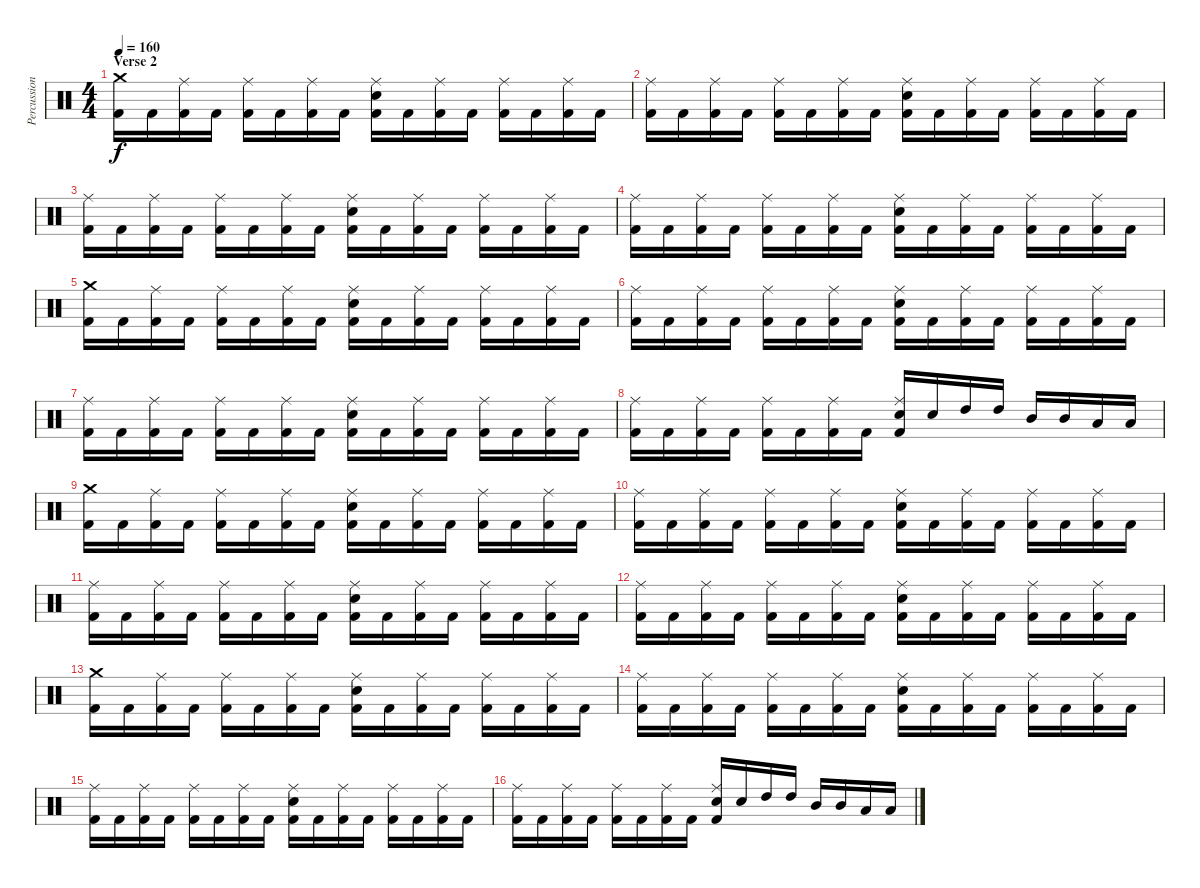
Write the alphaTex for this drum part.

\track ("Percussions" "Percussion") {instrument percussion}
\staff {score}
\articulation defaults
\ts (4 4)
\section ("" "Verse 2")
\tempo 160
\clef neutral
\ks c
("Crash medium (hit)" "Kick (hit) 2").16{dy f} "Kick (hit) 2".16 ("Ride (middle)" "Kick (hit) 2").16 "Kick (hit) 2".16 ("Ride (middle)" "Kick (hit) 2").16 "Kick (hit) 2".16 ("Ride (middle)" "Kick (hit) 2").16 "Kick (hit) 2".16 ("Ride (middle)" "Electric Snare (hit)" "Kick (hit) 2").16 "Kick (hit) 2".16 ("Ride (middle)" "Kick (hit) 2").16 "Kick (hit) 2".16 ("Ride (middle)" "Kick (hit) 2").16 "Kick (hit) 2".16 ("Ride (middle)" "Kick (hit) 2").16 "Kick (hit) 2".16 |
("Ride (middle)" "Kick (hit) 2").16 "Kick (hit) 2".16 ("Ride (middle)" "Kick (hit) 2").16 "Kick (hit) 2".16 ("Ride (middle)" "Kick (hit) 2").16 "Kick (hit) 2".16 ("Ride (middle)" "Kick (hit) 2").16 "Kick (hit) 2".16 ("Ride (middle)" "Electric Snare (hit)" "Kick (hit) 2").16 "Kick (hit) 2".16 ("Ride (middle)" "Kick (hit) 2").16 "Kick (hit) 2".16 ("Ride (middle)" "Kick (hit) 2").16 "Kick (hit) 2".16 ("Ride (middle)" "Kick (hit) 2").16 "Kick (hit) 2".16 |
("Ride (middle)" "Kick (hit) 2").16 "Kick (hit) 2".16 ("Ride (middle)" "Kick (hit) 2").16 "Kick (hit) 2".16 ("Ride (middle)" "Kick (hit) 2").16 "Kick (hit) 2".16 ("Ride (middle)" "Kick (hit) 2").16 "Kick (hit) 2".16 ("Ride (middle)" "Electric Snare (hit)" "Kick (hit) 2").16 "Kick (hit) 2".16 ("Ride (middle)" "Kick (hit) 2").16 "Kick (hit) 2".16 ("Ride (middle)" "Kick (hit) 2").16 "Kick (hit) 2".16 ("Ride (middle)" "Kick (hit) 2").16 "Kick (hit) 2".16 |
("Ride (middle)" "Kick (hit) 2").16 "Kick (hit) 2".16 ("Ride (middle)" "Kick (hit) 2").16 "Kick (hit) 2".16 ("Ride (middle)" "Kick (hit) 2").16 "Kick (hit) 2".16 ("Ride (middle)" "Kick (hit) 2").16 "Kick (hit) 2".16 ("Ride (middle)" "Electric Snare (hit)" "Kick (hit) 2").16 "Kick (hit) 2".16 ("Ride (middle)" "Kick (hit) 2").16 "Kick (hit) 2".16 ("Ride (middle)" "Kick (hit) 2").16 "Kick (hit) 2".16 ("Ride (middle)" "Kick (hit) 2").16 "Kick (hit) 2".16 |
("Crash medium (hit)" "Kick (hit) 2").16 "Kick (hit) 2".16 ("Ride (middle)" "Kick (hit) 2").16 "Kick (hit) 2".16 ("Ride (middle)" "Kick (hit) 2").16 "Kick (hit) 2".16 ("Ride (middle)" "Kick (hit) 2").16 "Kick (hit) 2".16 ("Ride (middle)" "Electric Snare (hit)" "Kick (hit) 2").16 "Kick (hit) 2".16 ("Ride (middle)" "Kick (hit) 2").16 "Kick (hit) 2".16 ("Ride (middle)" "Kick (hit) 2").16 "Kick (hit) 2".16 ("Ride (middle)" "Kick (hit) 2").16 "Kick (hit) 2".16 |
("Ride (middle)" "Kick (hit) 2").16 "Kick (hit) 2".16 ("Ride (middle)" "Kick (hit) 2").16 "Kick (hit) 2".16 ("Ride (middle)" "Kick (hit) 2").16 "Kick (hit) 2".16 ("Ride (middle)" "Kick (hit) 2").16 "Kick (hit) 2".16 ("Ride (middle)" "Electric Snare (hit)" "Kick (hit) 2").16 "Kick (hit) 2".16 ("Ride (middle)" "Kick (hit) 2").16 "Kick (hit) 2".16 ("Ride (middle)" "Kick (hit) 2").16 "Kick (hit) 2".16 ("Ride (middle)" "Kick (hit) 2").16 "Kick (hit) 2".16 |
("Ride (middle)" "Kick (hit) 2").16 "Kick (hit) 2".16 ("Ride (middle)" "Kick (hit) 2").16 "Kick (hit) 2".16 ("Ride (middle)" "Kick (hit) 2").16 "Kick (hit) 2".16 ("Ride (middle)" "Kick (hit) 2").16 "Kick (hit) 2".16 ("Ride (middle)" "Electric Snare (hit)" "Kick (hit) 2").16 "Kick (hit) 2".16 ("Ride (middle)" "Kick (hit) 2").16 "Kick (hit) 2".16 ("Ride (middle)" "Kick (hit) 2").16 "Kick (hit) 2".16 ("Ride (middle)" "Kick (hit) 2").16 "Kick (hit) 2".16 |
("Ride (middle)" "Kick (hit) 2").16 "Kick (hit) 2".16 ("Ride (middle)" "Kick (hit) 2").16 "Kick (hit) 2".16 ("Ride (middle)" "Kick (hit) 2").16 "Kick (hit) 2".16 ("Ride (middle)" "Kick (hit) 2").16 "Kick (hit) 2".16 ("Ride (middle)" "Electric Snare (hit)" "Kick (hit) 2").16 "Electric Snare (hit)".16 "High Tom (hit)".16 "High Tom (hit)".16 "Mid Tom (hit)".16 "Mid Tom (hit)".16 "Low Tom (hit)".16 "Low Tom (hit)".16 |
("Crash medium (hit)" "Kick (hit) 2").16 "Kick (hit) 2".16 ("Ride (middle)" "Kick (hit) 2").16 "Kick (hit) 2".16 ("Ride (middle)" "Kick (hit) 2").16 "Kick (hit) 2".16 ("Ride (middle)" "Kick (hit) 2").16 "Kick (hit) 2".16 ("Ride (middle)" "Electric Snare (hit)" "Kick (hit) 2").16 "Kick (hit) 2".16 ("Ride (middle)" "Kick (hit) 2").16 "Kick (hit) 2".16 ("Ride (middle)" "Kick (hit) 2").16 "Kick (hit) 2".16 ("Ride (middle)" "Kick (hit) 2").16 "Kick (hit) 2".16 |
("Ride (middle)" "Kick (hit) 2").16 "Kick (hit) 2".16 ("Ride (middle)" "Kick (hit) 2").16 "Kick (hit) 2".16 ("Ride (middle)" "Kick (hit) 2").16 "Kick (hit) 2".16 ("Ride (middle)" "Kick (hit) 2").16 "Kick (hit) 2".16 ("Ride (middle)" "Electric Snare (hit)" "Kick (hit) 2").16 "Kick (hit) 2".16 ("Ride (middle)" "Kick (hit) 2").16 "Kick (hit) 2".16 ("Ride (middle)" "Kick (hit) 2").16 "Kick (hit) 2".16 ("Ride (middle)" "Kick (hit) 2").16 "Kick (hit) 2".16 |
("Ride (middle)" "Kick (hit) 2").16 "Kick (hit) 2".16 ("Ride (middle)" "Kick (hit) 2").16 "Kick (hit) 2".16 ("Ride (middle)" "Kick (hit) 2").16 "Kick (hit) 2".16 ("Ride (middle)" "Kick (hit) 2").16 "Kick (hit) 2".16 ("Ride (middle)" "Electric Snare (hit)" "Kick (hit) 2").16 "Kick (hit) 2".16 ("Ride (middle)" "Kick (hit) 2").16 "Kick (hit) 2".16 ("Ride (middle)" "Kick (hit) 2").16 "Kick (hit) 2".16 ("Ride (middle)" "Kick (hit) 2").16 "Kick (hit) 2".16 |
("Ride (middle)" "Kick (hit) 2").16 "Kick (hit) 2".16 ("Ride (middle)" "Kick (hit) 2").16 "Kick (hit) 2".16 ("Ride (middle)" "Kick (hit) 2").16 "Kick (hit) 2".16 ("Ride (middle)" "Kick (hit) 2").16 "Kick (hit) 2".16 ("Ride (middle)" "Electric Snare (hit)" "Kick (hit) 2").16 "Kick (hit) 2".16 ("Ride (middle)" "Kick (hit) 2").16 "Kick (hit) 2".16 ("Ride (middle)" "Kick (hit) 2").16 "Kick (hit) 2".16 ("Ride (middle)" "Kick (hit) 2").16 "Kick (hit) 2".16 |
("Crash medium (hit)" "Kick (hit) 2").16 "Kick (hit) 2".16 ("Ride (middle)" "Kick (hit) 2").16 "Kick (hit) 2".16 ("Ride (middle)" "Kick (hit) 2").16 "Kick (hit) 2".16 ("Ride (middle)" "Kick (hit) 2").16 "Kick (hit) 2".16 ("Ride (middle)" "Electric Snare (hit)" "Kick (hit) 2").16 "Kick (hit) 2".16 ("Ride (middle)" "Kick (hit) 2").16 "Kick (hit) 2".16 ("Ride (middle)" "Kick (hit) 2").16 "Kick (hit) 2".16 ("Ride (middle)" "Kick (hit) 2").16 "Kick (hit) 2".16 |
("Ride (middle)" "Kick (hit) 2").16 "Kick (hit) 2".16 ("Ride (middle)" "Kick (hit) 2").16 "Kick (hit) 2".16 ("Ride (middle)" "Kick (hit) 2").16 "Kick (hit) 2".16 ("Ride (middle)" "Kick (hit) 2").16 "Kick (hit) 2".16 ("Ride (middle)" "Electric Snare (hit)" "Kick (hit) 2").16 "Kick (hit) 2".16 ("Ride (middle)" "Kick (hit) 2").16 "Kick (hit) 2".16 ("Ride (middle)" "Kick (hit) 2").16 "Kick (hit) 2".16 ("Ride (middle)" "Kick (hit) 2").16 "Kick (hit) 2".16 |
("Ride (middle)" "Kick (hit) 2").16 "Kick (hit) 2".16 ("Ride (middle)" "Kick (hit) 2").16 "Kick (hit) 2".16 ("Ride (middle)" "Kick (hit) 2").16 "Kick (hit) 2".16 ("Ride (middle)" "Kick (hit) 2").16 "Kick (hit) 2".16 ("Ride (middle)" "Electric Snare (hit)" "Kick (hit) 2").16 "Kick (hit) 2".16 ("Ride (middle)" "Kick (hit) 2").16 "Kick (hit) 2".16 ("Ride (middle)" "Kick (hit) 2").16 "Kick (hit) 2".16 ("Ride (middle)" "Kick (hit) 2").16 "Kick (hit) 2".16 |
("Ride (middle)" "Kick (hit) 2").16 "Kick (hit) 2".16 ("Ride (middle)" "Kick (hit) 2").16 "Kick (hit) 2".16 ("Ride (middle)" "Kick (hit) 2").16 "Kick (hit) 2".16 ("Ride (middle)" "Kick (hit) 2").16 "Kick (hit) 2".16 ("Ride (middle)" "Electric Snare (hit)" "Kick (hit) 2").16 "Electric Snare (hit)".16 "High Tom (hit)".16 "High Tom (hit)".16 "Mid Tom (hit)".16 "Mid Tom (hit)".16 "Low Tom (hit)".16 "Low Tom (hit)".16
